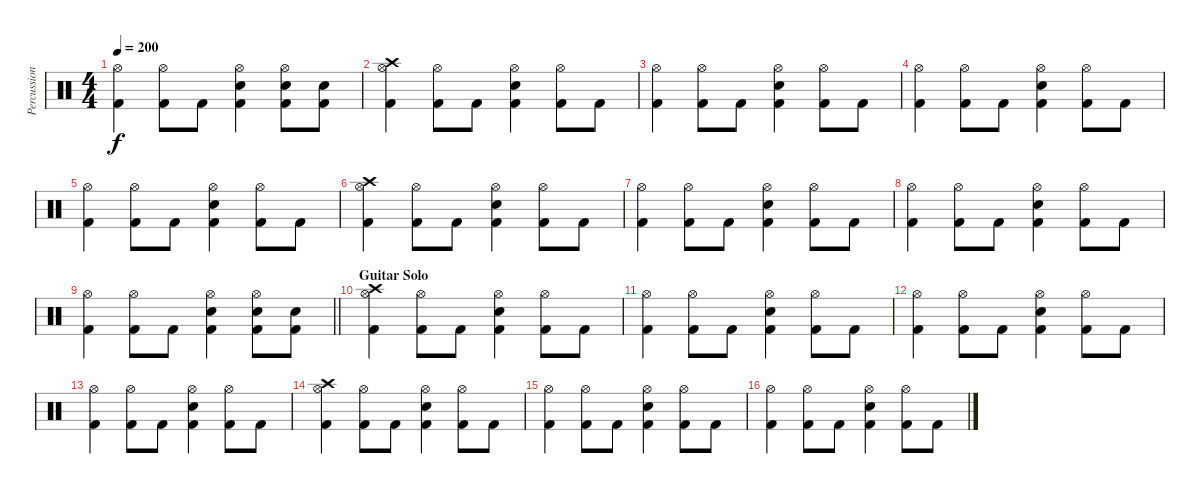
\track ("Percussion" "Percussion") {instrument percussion}
\staff {score}
\articulation defaults
\ts (4 4)
\tempo 200
\clef neutral
\ks c
("Hi-Hat (open)" "Kick (hit) 2").4{dy f} ("Hi-Hat (open)" "Kick (hit) 2").8 "Kick (hit) 2".8 ("Hi-Hat (open)" "Snare (hit) 2" "Kick (hit) 2").4 ("Hi-Hat (open)" "Snare (hit) 2" "Kick (hit) 2").8 ("Snare (hit) 2" "Kick (hit) 2").8 |
("Crash high (hit)" "Hi-Hat (open)" "Kick (hit) 2").4 ("Hi-Hat (open)" "Kick (hit) 2").8 "Kick (hit) 2".8 ("Hi-Hat (open)" "Snare (hit) 2" "Kick (hit) 2").4 ("Hi-Hat (open)" "Kick (hit) 2").8 "Kick (hit) 2".8 |
("Hi-Hat (open)" "Kick (hit) 2").4 ("Hi-Hat (open)" "Kick (hit) 2").8 "Kick (hit) 2".8 ("Hi-Hat (open)" "Snare (hit) 2" "Kick (hit) 2").4 ("Hi-Hat (open)" "Kick (hit) 2").8 "Kick (hit) 2".8 |
("Hi-Hat (open)" "Kick (hit) 2").4 ("Hi-Hat (open)" "Kick (hit) 2").8 "Kick (hit) 2".8 ("Hi-Hat (open)" "Snare (hit) 2" "Kick (hit) 2").4 ("Hi-Hat (open)" "Kick (hit) 2").8 "Kick (hit) 2".8 |
("Hi-Hat (open)" "Kick (hit) 2").4 ("Hi-Hat (open)" "Kick (hit) 2").8 "Kick (hit) 2".8 ("Hi-Hat (open)" "Snare (hit) 2" "Kick (hit) 2").4 ("Hi-Hat (open)" "Kick (hit) 2").8 "Kick (hit) 2".8 |
("Crash high (hit)" "Hi-Hat (open)" "Kick (hit) 2").4 ("Hi-Hat (open)" "Kick (hit) 2").8 "Kick (hit) 2".8 ("Hi-Hat (open)" "Snare (hit) 2" "Kick (hit) 2").4 ("Hi-Hat (open)" "Kick (hit) 2").8 "Kick (hit) 2".8 |
("Hi-Hat (open)" "Kick (hit) 2").4 ("Hi-Hat (open)" "Kick (hit) 2").8 "Kick (hit) 2".8 ("Hi-Hat (open)" "Snare (hit) 2" "Kick (hit) 2").4 ("Hi-Hat (open)" "Kick (hit) 2").8 "Kick (hit) 2".8 |
("Hi-Hat (open)" "Kick (hit) 2").4 ("Hi-Hat (open)" "Kick (hit) 2").8 "Kick (hit) 2".8 ("Hi-Hat (open)" "Snare (hit) 2" "Kick (hit) 2").4 ("Hi-Hat (open)" "Kick (hit) 2").8 "Kick (hit) 2".8 |
\barLineRight lightlight
("Hi-Hat (open)" "Kick (hit) 2").4 ("Hi-Hat (open)" "Kick (hit) 2").8 "Kick (hit) 2".8 ("Hi-Hat (open)" "Snare (hit) 2" "Kick (hit) 2").4 ("Hi-Hat (open)" "Snare (hit) 2" "Kick (hit) 2").8 ("Snare (hit) 2" "Kick (hit) 2").8 |
\section ("" "Guitar Solo")
("Crash high (hit)" "Hi-Hat (open)" "Kick (hit) 2").4 ("Hi-Hat (open)" "Kick (hit) 2").8 "Kick (hit) 2".8 ("Hi-Hat (open)" "Snare (hit) 2" "Kick (hit) 2").4 ("Hi-Hat (open)" "Kick (hit) 2").8 "Kick (hit) 2".8 |
("Hi-Hat (open)" "Kick (hit) 2").4 ("Hi-Hat (open)" "Kick (hit) 2").8 "Kick (hit) 2".8 ("Hi-Hat (open)" "Snare (hit) 2" "Kick (hit) 2").4 ("Hi-Hat (open)" "Kick (hit) 2").8 "Kick (hit) 2".8 |
("Hi-Hat (open)" "Kick (hit) 2").4 ("Hi-Hat (open)" "Kick (hit) 2").8 "Kick (hit) 2".8 ("Hi-Hat (open)" "Snare (hit) 2" "Kick (hit) 2").4 ("Hi-Hat (open)" "Kick (hit) 2").8 "Kick (hit) 2".8 |
("Hi-Hat (open)" "Kick (hit) 2").4 ("Hi-Hat (open)" "Kick (hit) 2").8 "Kick (hit) 2".8 ("Hi-Hat (open)" "Snare (hit) 2" "Kick (hit) 2").4 ("Hi-Hat (open)" "Kick (hit) 2").8 "Kick (hit) 2".8 |
("Crash high (hit)" "Hi-Hat (open)" "Kick (hit) 2").4 ("Hi-Hat (open)" "Kick (hit) 2").8 "Kick (hit) 2".8 ("Hi-Hat (open)" "Snare (hit) 2" "Kick (hit) 2").4 ("Hi-Hat (open)" "Kick (hit) 2").8 "Kick (hit) 2".8 |
("Hi-Hat (open)" "Kick (hit) 2").4 ("Hi-Hat (open)" "Kick (hit) 2").8 "Kick (hit) 2".8 ("Hi-Hat (open)" "Snare (hit) 2" "Kick (hit) 2").4 ("Hi-Hat (open)" "Kick (hit) 2").8 "Kick (hit) 2".8 |
("Hi-Hat (open)" "Kick (hit) 2").4 ("Hi-Hat (open)" "Kick (hit) 2").8 "Kick (hit) 2".8 ("Hi-Hat (open)" "Snare (hit) 2" "Kick (hit) 2").4 ("Hi-Hat (open)" "Kick (hit) 2").8 "Kick (hit) 2".8
